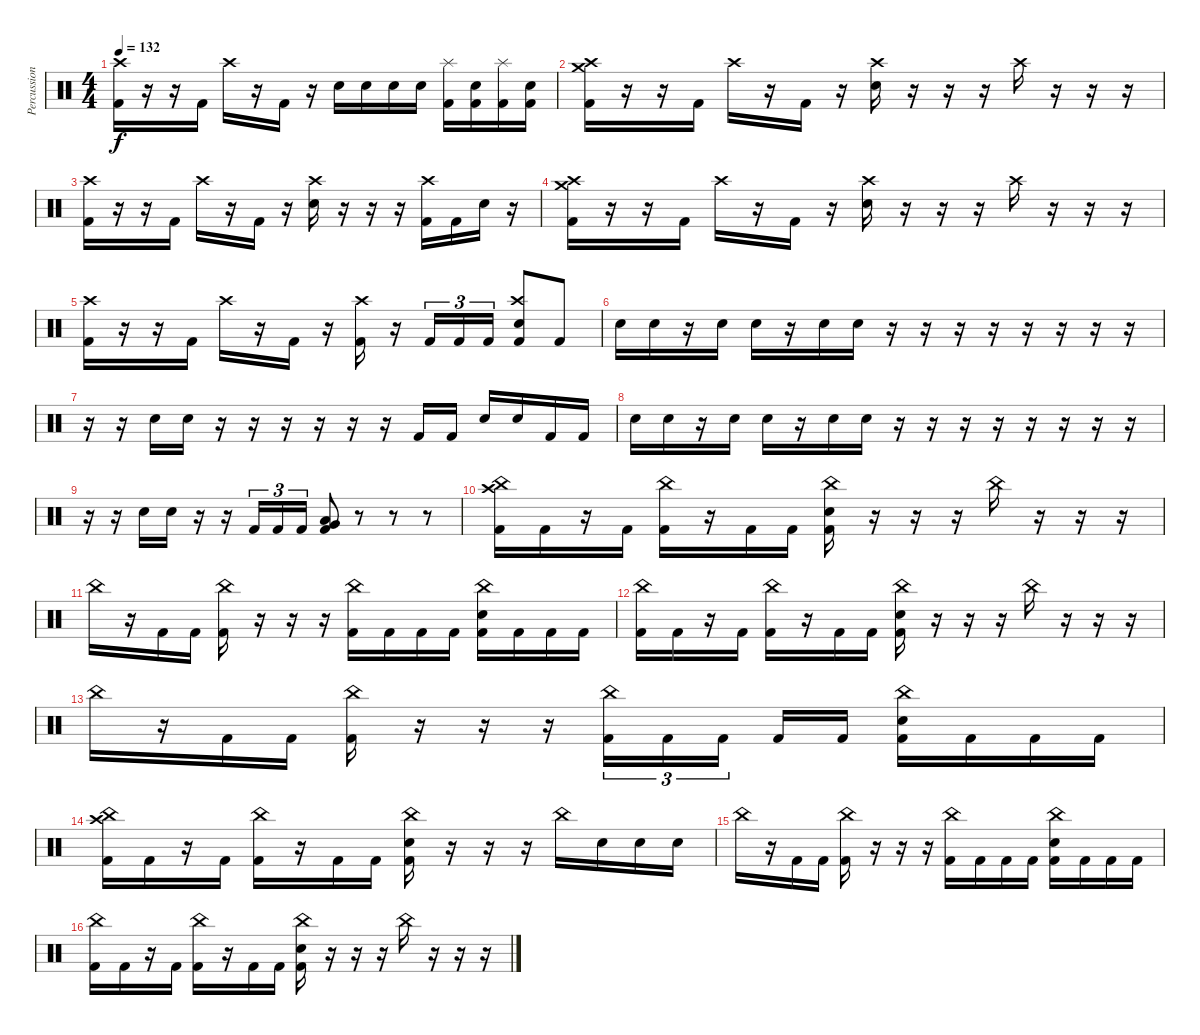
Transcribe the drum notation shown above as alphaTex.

\track ("Percussion" "Percussion") {instrument percussion}
\staff {score}
\articulation defaults
\ts (4 4)
\tempo 132
\clef neutral
\ks c
("Kick (hit) 2" "Crash high (hit)").16{dy f} r.16 r.16 "Kick (hit) 2".16 "Crash high (hit)".16 r.16 "Kick (hit) 2".16 r.16 "Snare (hit) 2".16 "Snare (hit) 2".16 "Snare (hit) 2".16 "Snare (hit) 2".16 ("Kick (hit) 2" "Splash (hit)").16 ("Kick (hit) 2" "Snare (hit) 2").16 ("Kick (hit) 2" "Splash (hit)").16 ("Kick (hit) 2" "Snare (hit) 2").16 |
("Kick (hit) 2" "Crash medium (hit)" "Crash high (hit)").16 r.16 r.16 "Kick (hit) 2".16 "Crash high (hit)".16 r.16 "Kick (hit) 2".16 r.16 ("Snare (hit) 2" "Crash high (hit)").16 r.16 r.16 r.16 "Crash high (hit)".16 r.16 r.16 r.16 |
("Kick (hit) 2" "Crash high (hit)").16 r.16 r.16 "Kick (hit) 2".16 "Crash high (hit)".16 r.16 "Kick (hit) 2".16 r.16 ("Snare (hit) 2" "Crash high (hit)").16 r.16 r.16 r.16 ("Kick (hit) 2" "Crash high (hit)").16 "Kick (hit) 2".16 "Snare (hit) 2".16 r.16 |
("Kick (hit) 2" "Crash medium (hit)" "Crash high (hit)").16 r.16 r.16 "Kick (hit) 2".16 "Crash high (hit)".16 r.16 "Kick (hit) 2".16 r.16 ("Snare (hit) 2" "Crash high (hit)").16 r.16 r.16 r.16 "Crash high (hit)".16 r.16 r.16 r.16 |
("Kick (hit) 2" "Crash high (hit)").16 r.16 r.16 "Kick (hit) 2".16 "Crash high (hit)".16 r.16 "Kick (hit) 2".16 r.16 ("Kick (hit) 2" "Crash high (hit)").16 r.16 "Kick (hit) 2".16{tu (3 2)} "Kick (hit) 2".16{tu (3 2)} "Kick (hit) 2".16{tu (3 2)} ("Kick (hit) 2" "Snare (hit) 2" "Crash high (hit)").8 "Kick (hit) 2".8 |
"Snare (hit) 2".16 "Snare (hit) 2".16 r.16 "Snare (hit) 2".16 "Snare (hit) 2".16 r.16 "Snare (hit) 2".16 "Snare (hit) 2".16 r.16 r.16 r.16 r.16 r.16 r.16 r.16 r.16 |
r.16 r.16 "Snare (hit) 2".16 "Snare (hit) 2".16 r.16 r.16 r.16 r.16 r.16 r.16 "Kick (hit) 2".16 "Kick (hit) 2".16 "Snare (hit) 2".16 "Snare (hit) 2".16 "Kick (hit) 2".16 "Kick (hit) 2".16 |
"Snare (hit) 2".16 "Snare (hit) 2".16 r.16 "Snare (hit) 2".16 "Snare (hit) 2".16 r.16 "Snare (hit) 2".16 "Snare (hit) 2".16 r.16 r.16 r.16 r.16 r.16 r.16 r.16 r.16 |
r.16 r.16 "Snare (hit) 2".16 "Snare (hit) 2".16 r.16 r.16 "Kick (hit) 2".16{tu (3 2)} "Kick (hit) 2".16{tu (3 2)} "Kick (hit) 2".16{tu (3 2)} ("Kick (hit) 2" "Very Low Tom (hit)" "Low Tom (hit)").8 r.8 r.8 r.8 |
("Kick (hit) 2" "Crash high (hit)" "China (hit)").16 "Kick (hit) 2".16 r.16 "Kick (hit) 2".16 ("Kick (hit) 2" "China (hit)").16 r.16 "Kick (hit) 2".16 "Kick (hit) 2".16 ("Kick (hit) 2" "Snare (hit) 2" "China (hit)").16 r.16 r.16 r.16 "China (hit)".16 r.16 r.16 r.16 |
"China (hit)".16 r.16 "Kick (hit) 2".16 "Kick (hit) 2".16 ("Kick (hit) 2" "China (hit)").16 r.16 r.16 r.16 ("Kick (hit) 2" "China (hit)").16 "Kick (hit) 2".16 "Kick (hit) 2".16 "Kick (hit) 2".16 ("Kick (hit) 2" "Snare (hit) 2" "China (hit)").16 "Kick (hit) 2".16 "Kick (hit) 2".16 "Kick (hit) 2".16 |
("Kick (hit) 2" "China (hit)").16 "Kick (hit) 2".16 r.16 "Kick (hit) 2".16 ("Kick (hit) 2" "China (hit)").16 r.16 "Kick (hit) 2".16 "Kick (hit) 2".16 ("Kick (hit) 2" "Snare (hit) 2" "China (hit)").16 r.16 r.16 r.16 "China (hit)".16 r.16 r.16 r.16 |
"China (hit)".16 r.16 "Kick (hit) 2".16 "Kick (hit) 2".16 ("Kick (hit) 2" "China (hit)").16 r.16 r.16 r.16 ("Kick (hit) 2" "China (hit)").16{tu (3 2)} "Kick (hit) 2".16{tu (3 2)} "Kick (hit) 2".16{tu (3 2) beam splitsecondary} "Kick (hit) 2".16 "Kick (hit) 2".16 ("Kick (hit) 2" "Snare (hit) 2" "China (hit)").16 "Kick (hit) 2".16 "Kick (hit) 2".16 "Kick (hit) 2".16 |
("Kick (hit) 2" "Crash high (hit)" "China (hit)").16 "Kick (hit) 2".16 r.16 "Kick (hit) 2".16 ("Kick (hit) 2" "China (hit)").16 r.16 "Kick (hit) 2".16 "Kick (hit) 2".16 ("Kick (hit) 2" "Snare (hit) 2" "China (hit)").16 r.16 r.16 r.16 "China (hit)".16 "Snare (hit) 2".16 "Snare (hit) 2".16 "Snare (hit) 2".16 |
"China (hit)".16 r.16 "Kick (hit) 2".16 "Kick (hit) 2".16 ("Kick (hit) 2" "China (hit)").16 r.16 r.16 r.16 ("Kick (hit) 2" "China (hit)").16 "Kick (hit) 2".16 "Kick (hit) 2".16 "Kick (hit) 2".16 ("Kick (hit) 2" "Snare (hit) 2" "China (hit)").16 "Kick (hit) 2".16 "Kick (hit) 2".16 "Kick (hit) 2".16 |
("Kick (hit) 2" "China (hit)").16 "Kick (hit) 2".16 r.16 "Kick (hit) 2".16 ("Kick (hit) 2" "China (hit)").16 r.16 "Kick (hit) 2".16 "Kick (hit) 2".16 ("Kick (hit) 2" "Snare (hit) 2" "China (hit)").16 r.16 r.16 r.16 "China (hit)".16 r.16 r.16 r.16
